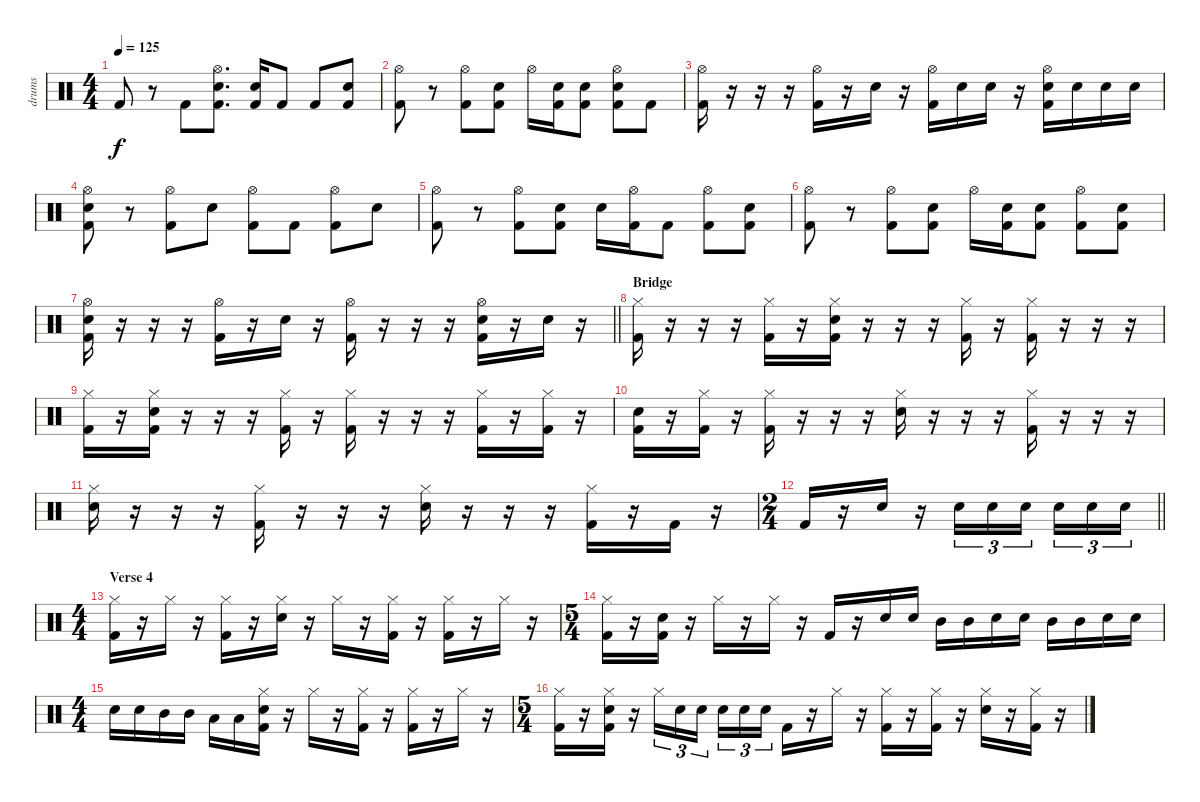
\track ("drums" "drums") {instrument percussion}
\staff {score}
\articulation defaults
\ts (4 4)
\tempo 125
\clef neutral
\ks c "Kick (hit) 2".8{dy f}
r.8 "Kick (hit) 2".8 ("Electric Snare (hit)" "Hi-Hat (open)" "Kick (hit) 2").8{d} ("Electric Snare (hit)" "Kick (hit) 2").16 "Kick (hit) 2".8 "Kick (hit) 2".8 ("Electric Snare (hit)" "Kick (hit) 2").8 |
("Hi-Hat (open)" "Kick (hit) 2").8 r.8 ("Hi-Hat (open)" "Kick (hit) 2").8 ("Electric Snare (hit)" "Kick (hit) 2").8 "Hi-Hat (open)".16 ("Electric Snare (hit)" "Kick (hit) 2").16 ("Electric Snare (hit)" "Kick (hit) 2").8 ("Electric Snare (hit)" "Hi-Hat (open)" "Kick (hit) 2").8 "Kick (hit) 2".8 |
("Hi-Hat (open)" "Kick (hit) 2").16 r.16 r.16 r.16 ("Hi-Hat (open)" "Kick (hit) 2").16 r.16 "Electric Snare (hit)".16 r.16 ("Hi-Hat (open)" "Kick (hit) 2").16 "Electric Snare (hit)".16 "Electric Snare (hit)".16 r.16 ("Electric Snare (hit)" "Hi-Hat (open)" "Kick (hit) 2").16 "Electric Snare (hit)".16 "Electric Snare (hit)".16 "Electric Snare (hit)".16 |
("Electric Snare (hit)" "Hi-Hat (open)" "Kick (hit) 2").8 r.8 ("Hi-Hat (open)" "Kick (hit) 2").8 "Electric Snare (hit)".8 ("Hi-Hat (open)" "Kick (hit) 2").8 "Kick (hit) 2".8 ("Hi-Hat (open)" "Kick (hit) 2").8 "Electric Snare (hit)".8 |
("Hi-Hat (open)" "Kick (hit) 2").8 r.8 ("Hi-Hat (open)" "Kick (hit) 2").8 ("Electric Snare (hit)" "Kick (hit) 2").8 "Electric Snare (hit)".16 ("Hi-Hat (open)" "Kick (hit) 2").16 "Kick (hit) 2".8 ("Hi-Hat (open)" "Kick (hit) 2").8 ("Electric Snare (hit)" "Kick (hit) 2").8 |
("Hi-Hat (open)" "Kick (hit) 2").8 r.8 ("Hi-Hat (open)" "Kick (hit) 2").8 ("Electric Snare (hit)" "Kick (hit) 2").8 "Hi-Hat (open)".16 ("Electric Snare (hit)" "Kick (hit) 2").16 ("Electric Snare (hit)" "Kick (hit) 2").8 ("Hi-Hat (open)" "Kick (hit) 2").8 ("Electric Snare (hit)" "Kick (hit) 2").8 |
\barLineRight lightlight
("Electric Snare (hit)" "Hi-Hat (open)" "Kick (hit) 2").16 r.16 r.16 r.16 ("Hi-Hat (open)" "Kick (hit) 2").16 r.16 "Electric Snare (hit)".16 r.16 ("Hi-Hat (open)" "Kick (hit) 2").16 r.16 r.16 r.16 ("Electric Snare (hit)" "Hi-Hat (open)" "Kick (hit) 2").16 r.16 "Electric Snare (hit)".16 r.16 |
\section ("" "Bridge")
("Hi-Hat (closed)" "Kick (hit) 2").16 r.16 r.16 r.16 ("Hi-Hat (closed)" "Kick (hit) 2").16 r.16 ("Electric Snare (hit)" "Hi-Hat (closed)" "Kick (hit) 2").16 r.16 r.16 r.16 ("Hi-Hat (closed)" "Kick (hit) 2").16 r.16 ("Hi-Hat (closed)" "Kick (hit) 2").16 r.16 r.16 r.16 |
("Hi-Hat (closed)" "Kick (hit) 2").16 r.16 ("Electric Snare (hit)" "Hi-Hat (closed)" "Kick (hit) 2").16 r.16 r.16 r.16 ("Hi-Hat (closed)" "Kick (hit) 2").16 r.16 ("Hi-Hat (closed)" "Kick (hit) 2").16 r.16 r.16 r.16 ("Hi-Hat (closed)" "Kick (hit) 2").16 r.16 ("Hi-Hat (closed)" "Kick (hit) 2").16 r.16 |
("Electric Snare (hit)" "Kick (hit) 2").16 r.16 ("Hi-Hat (closed)" "Kick (hit) 2").16 r.16 ("Hi-Hat (closed)" "Kick (hit) 2").16 r.16 r.16 r.16 ("Electric Snare (hit)" "Hi-Hat (closed)").16 r.16 r.16 r.16 ("Hi-Hat (closed)" "Kick (hit) 2").16 r.16 r.16 r.16 |
("Electric Snare (hit)" "Hi-Hat (closed)").16 r.16 r.16 r.16 ("Hi-Hat (closed)" "Kick (hit) 2").16 r.16 r.16 r.16 ("Electric Snare (hit)" "Hi-Hat (closed)").16 r.16 r.16 r.16 ("Hi-Hat (closed)" "Kick (hit) 2").16 r.16 "Kick (hit) 2".16 r.16 |
\ts (2 4)
\barLineRight lightlight "Kick (hit) 2".16
r.16 "Electric Snare (hit)".16 r.16 "Electric Snare (hit)".16{tu (3 2)} "Electric Snare (hit)".16{tu (3 2)} "Electric Snare (hit)".16{tu (3 2) beam splitsecondary} "Electric Snare (hit)".16{tu (3 2)} "Electric Snare (hit)".16{tu (3 2)} "Electric Snare (hit)".16{tu (3 2)} |
\ts (4 4)
\section ("" "Verse 4")
("Hi-Hat (closed)" "Kick (hit) 2").16 r.16 "Hi-Hat (closed)".16 r.16 ("Hi-Hat (closed)" "Kick (hit) 2").16 r.16 ("Electric Snare (hit)" "Hi-Hat (closed)").16 r.16 "Hi-Hat (closed)".16 r.16 ("Hi-Hat (closed)" "Kick (hit) 2").16 r.16 ("Hi-Hat (closed)" "Kick (hit) 2").16 r.16 "Hi-Hat (closed)".16 r.16 |
\ts (5 4)
("Hi-Hat (closed)" "Kick (hit) 2").16 r.16 ("Electric Snare (hit)" "Kick (hit) 2").16 r.16 "Hi-Hat (closed)".16 r.16 "Hi-Hat (closed)".16 r.16 "Kick (hit) 2".16 r.16 "Electric Snare (hit)".16 "Electric Snare (hit)".16 "Mid Tom (hit)".16 "Mid Tom (hit)".16 "Electric Snare (hit)".16 "Electric Snare (hit)".16 "Mid Tom (hit)".16 "Mid Tom (hit)".16 "Electric Snare (hit)".16 "Electric Snare (hit)".16 |
\ts (4 4)
"Electric Snare (hit)".16 "Electric Snare (hit)".16 "Mid Tom (hit)".16 "Mid Tom (hit)".16 "Low Tom (hit)".16 "Low Tom (hit)".16 ("Electric Snare (hit)" "Hi-Hat (closed)" "Kick (hit) 2").16 r.16 "Hi-Hat (closed)".16 r.16 ("Hi-Hat (closed)" "Kick (hit) 2").16 r.16 ("Hi-Hat (closed)" "Kick (hit) 2").16 r.16 "Hi-Hat (closed)".16 r.16 |
\ts (5 4)
("Hi-Hat (closed)" "Kick (hit) 2").16 r.16 ("Electric Snare (hit)" "Hi-Hat (closed)" "Kick (hit) 2").16 r.16 "Hi-Hat (closed)".16{tu (3 2)} "Electric Snare (hit)".16{tu (3 2)} "Electric Snare (hit)".16{tu (3 2) beam splitsecondary} "Electric Snare (hit)".16{tu (3 2)} "Electric Snare (hit)".16{tu (3 2)} "Electric Snare (hit)".16{tu (3 2)} "Kick (hit) 2".16 r.16 "Hi-Hat (closed)".16 r.16 ("Hi-Hat (closed)" "Kick (hit) 2").16 r.16 ("Hi-Hat (closed)" "Kick (hit) 2").16 r.16 ("Electric Snare (hit)" "Hi-Hat (closed)").16 r.16 ("Hi-Hat (closed)" "Kick (hit) 2").16 r.16
